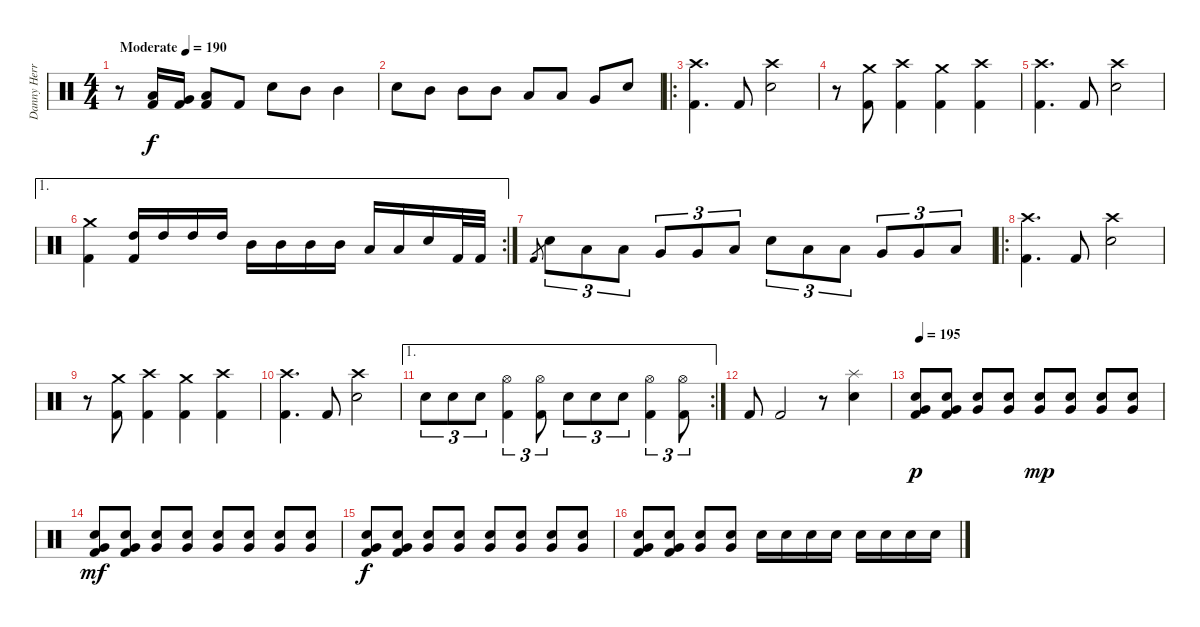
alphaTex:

\track ("Danny Herrera - Drums" "Danny Herr") {instrument percussion}
\staff {score}
\articulation defaults
\ts (4 4)
\tempo (190 "Moderate")
\clef neutral
\ks c
r.8{dy f} ("Low Tom (hit)" "Kick (hit) 2").16 ("Very Low Tom (hit)" "Kick (hit) 2").16 ("Low Floor Tom (hit)" "Kick (hit) 2").8 "Kick (hit) 2".8 "Electric Snare (hit)".8 "Mid Tom (hit)".8 "Mid Tom (hit)".4 |
"Electric Snare (hit)".8 "Mid Tom (hit)".8 "Mid Tom (hit)".8 "Mid Tom (hit)".8 "Low Tom (hit)".8 "Low Tom (hit)".8 "Very Low Tom (hit)".8 "Electric Snare (hit)".8 |
\ro
("Crash high (hit)" "Kick (hit) 2").4{d} "Kick (hit) 2".8 ("Crash high (hit)" "Electric Snare (hit)").2 |
r.8 ("Crash medium (hit)" "Kick (hit) 2").8 ("Crash high (hit)" "Kick (hit) 2").4 ("Crash medium (hit)" "Kick (hit) 2").4 ("Crash high (hit)" "Kick (hit) 2").4 |
("Crash high (hit)" "Kick (hit) 2").4{d} "Kick (hit) 2".8 ("Crash high (hit)" "Electric Snare (hit)").2 |
\ae 1
\rc 2
("Crash medium (hit)" "Kick (hit) 2").4 ("High Tom (hit)" "Kick (hit) 2").16 "High Tom (hit)".16 "High Tom (hit)".16 "High Tom (hit)".16 "Mid Tom (hit)".16 "Mid Tom (hit)".16 "Mid Tom (hit)".16 "Mid Tom (hit)".16 "Low Tom (hit)".16 "Low Tom (hit)".16 "Electric Snare (hit)".16 "Kick (hit) 2".32 "Kick (hit) 2".32 |
"Kick (hit) 2".8{gr} "Electric Snare (hit)".8{tu (3 2)} "Low Tom (hit)".8{tu (3 2)} "Low Tom (hit)".8{tu (3 2)} "Very Low Tom (hit)".8{tu (3 2)} "Very Low Tom (hit)".8{tu (3 2)} "Low Floor Tom (hit)".8{tu (3 2)} "Electric Snare (hit)".8{tu (3 2)} "Low Tom (hit)".8{tu (3 2)} "Low Tom (hit)".8{tu (3 2)} "Very Low Tom (hit)".8{tu (3 2)} "Very Low Tom (hit)".8{tu (3 2)} "Low Floor Tom (hit)".8{tu (3 2)} |
\ro
("Crash high (hit)" "Kick (hit) 2").4{d} "Kick (hit) 2".8 ("Crash high (hit)" "Electric Snare (hit)").2 |
r.8 ("Crash medium (hit)" "Kick (hit) 2").8 ("Crash high (hit)" "Kick (hit) 2").4 ("Crash medium (hit)" "Kick (hit) 2").4 ("Crash high (hit)" "Kick (hit) 2").4 |
("Crash high (hit)" "Kick (hit) 2").4{d} "Kick (hit) 2".8 ("Crash high (hit)" "Electric Snare (hit)").2 |
\ae 1
\rc 2 "Electric Snare (hit)".8{tu (3 2)} "Electric Snare (hit)".8{tu (3 2)} "Electric Snare (hit)".8{tu (3 2)}
("Hi-Hat (open)" "Kick (hit) 2").4{tu (3 2)} ("Hi-Hat (open)" "Kick (hit) 2").8{tu (3 2)} "Electric Snare (hit)".8{tu (3 2)} "Electric Snare (hit)".8{tu (3 2)} "Electric Snare (hit)".8{tu (3 2)} ("Hi-Hat (open)" "Kick (hit) 2").4{tu (3 2)} ("Hi-Hat (open)" "Kick (hit) 2").8{tu (3 2)} |
"Kick (hit) 2".8 "Kick (hit) 2".2 r.8 ("Splash (hit)" "Electric Snare (hit)").4 |
\tempo 195
("Electric Snare (hit)" "Very Low Tom (hit)" "Kick (hit) 2").8{dy p} ("Electric Snare (hit)" "Very Low Tom (hit)" "Kick (hit) 2").8 ("Electric Snare (hit)" "Very Low Tom (hit)").8 ("Electric Snare (hit)" "Very Low Tom (hit)").8 ("Electric Snare (hit)" "Very Low Tom (hit)").8{dy mp} ("Electric Snare (hit)" "Very Low Tom (hit)").8 ("Electric Snare (hit)" "Very Low Tom (hit)").8 ("Electric Snare (hit)" "Very Low Tom (hit)").8 |
("Electric Snare (hit)" "Very Low Tom (hit)" "Kick (hit) 2").8{dy mf} ("Electric Snare (hit)" "Very Low Tom (hit)" "Kick (hit) 2").8 ("Electric Snare (hit)" "Very Low Tom (hit)").8 ("Electric Snare (hit)" "Very Low Tom (hit)").8 ("Electric Snare (hit)" "Very Low Tom (hit)").8 ("Electric Snare (hit)" "Very Low Tom (hit)").8 ("Electric Snare (hit)" "Very Low Tom (hit)").8 ("Electric Snare (hit)" "Very Low Tom (hit)").8 |
("Electric Snare (hit)" "Very Low Tom (hit)" "Kick (hit) 2").8{dy f} ("Electric Snare (hit)" "Very Low Tom (hit)" "Kick (hit) 2").8 ("Electric Snare (hit)" "Very Low Tom (hit)").8 ("Electric Snare (hit)" "Very Low Tom (hit)").8 ("Electric Snare (hit)" "Very Low Tom (hit)").8 ("Electric Snare (hit)" "Very Low Tom (hit)").8 ("Electric Snare (hit)" "Very Low Tom (hit)").8 ("Electric Snare (hit)" "Very Low Tom (hit)").8 |
("Electric Snare (hit)" "Very Low Tom (hit)" "Kick (hit) 2").8 ("Electric Snare (hit)" "Very Low Tom (hit)" "Kick (hit) 2").8 ("Electric Snare (hit)" "Very Low Tom (hit)").8 ("Electric Snare (hit)" "Very Low Tom (hit)").8 "Electric Snare (hit)".16 "Electric Snare (hit)".16 "Electric Snare (hit)".16 "Electric Snare (hit)".16 "Electric Snare (hit)".16 "Electric Snare (hit)".16 "Electric Snare (hit)".16 "Electric Snare (hit)".16
